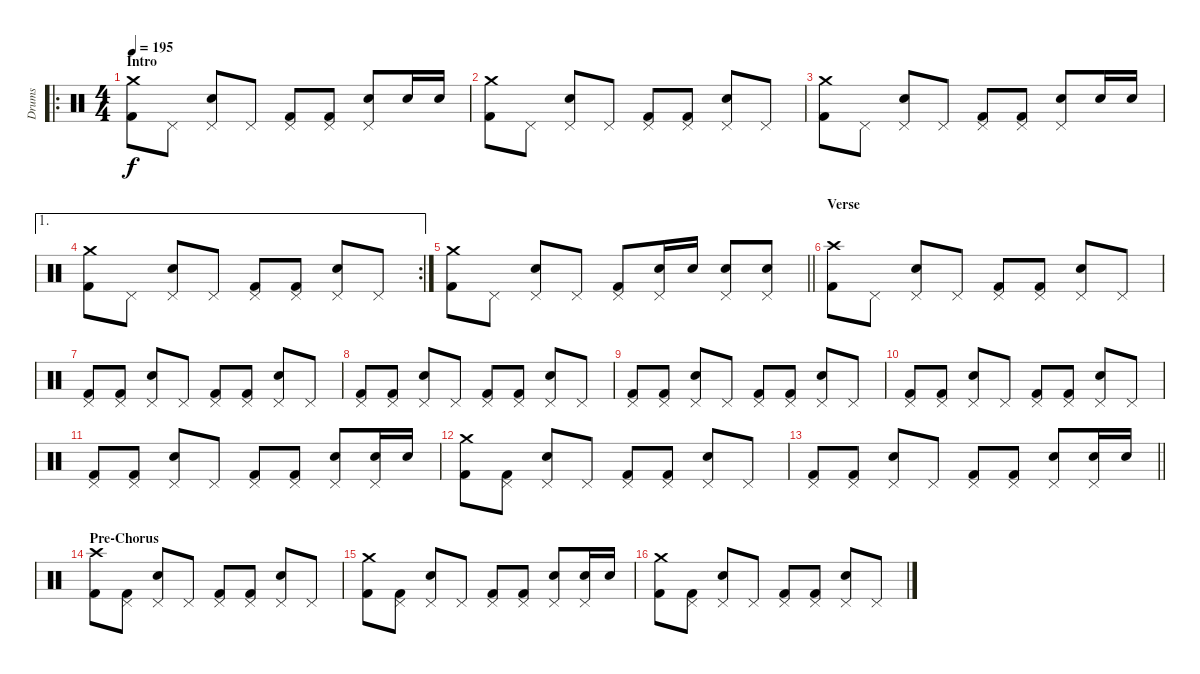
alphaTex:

\track ("Drums" "Drums") {instrument percussion}
\staff {score}
\articulation defaults
\ro
\ts (4 4)
\section ("" "Intro")
\tempo 195
\clef neutral
\ks c
("Crash medium (hit)" "Kick (hit) 2").8{dy f} "Pedal Hi-Hat (hit)".8 ("Pedal Hi-Hat (hit)" "Electric Snare (hit)").8 "Pedal Hi-Hat (hit)".8 ("Pedal Hi-Hat (hit)" "Kick (hit) 2").8 ("Pedal Hi-Hat (hit)" "Kick (hit) 2").8 ("Pedal Hi-Hat (hit)" "Electric Snare (hit)").8 "Electric Snare (hit)".16 "Electric Snare (hit)".16 |
("Crash medium (hit)" "Kick (hit) 2").8 "Pedal Hi-Hat (hit)".8 ("Pedal Hi-Hat (hit)" "Electric Snare (hit)").8 "Pedal Hi-Hat (hit)".8 ("Pedal Hi-Hat (hit)" "Kick (hit) 2").8 ("Pedal Hi-Hat (hit)" "Kick (hit) 2").8 ("Pedal Hi-Hat (hit)" "Electric Snare (hit)").8 "Pedal Hi-Hat (hit)".8 |
("Crash medium (hit)" "Kick (hit) 2").8 "Pedal Hi-Hat (hit)".8 ("Pedal Hi-Hat (hit)" "Electric Snare (hit)").8 "Pedal Hi-Hat (hit)".8 ("Pedal Hi-Hat (hit)" "Kick (hit) 2").8 ("Pedal Hi-Hat (hit)" "Kick (hit) 2").8 ("Pedal Hi-Hat (hit)" "Electric Snare (hit)").8 "Electric Snare (hit)".16 "Electric Snare (hit)".16 |
\ae 1
\rc 2
("Crash medium (hit)" "Kick (hit) 2").8 "Pedal Hi-Hat (hit)".8 ("Pedal Hi-Hat (hit)" "Electric Snare (hit)").8 "Pedal Hi-Hat (hit)".8 ("Pedal Hi-Hat (hit)" "Kick (hit) 2").8 ("Pedal Hi-Hat (hit)" "Kick (hit) 2").8 ("Pedal Hi-Hat (hit)" "Electric Snare (hit)").8 "Pedal Hi-Hat (hit)".8 |
\barLineRight lightlight
("Crash medium (hit)" "Kick (hit) 2").8 "Pedal Hi-Hat (hit)".8 ("Pedal Hi-Hat (hit)" "Electric Snare (hit)").8 "Pedal Hi-Hat (hit)".8 ("Pedal Hi-Hat (hit)" "Kick (hit) 2").8 ("Pedal Hi-Hat (hit)" "Electric Snare (hit)").16 "Electric Snare (hit)".16 ("Pedal Hi-Hat (hit)" "Electric Snare (hit)").8 ("Pedal Hi-Hat (hit)" "Electric Snare (hit)").8 |
\section ("" "Verse")
("Crash high (hit)" "Kick (hit) 2").8 "Pedal Hi-Hat (hit)".8 ("Pedal Hi-Hat (hit)" "Electric Snare (hit)").8 "Pedal Hi-Hat (hit)".8 ("Pedal Hi-Hat (hit)" "Kick (hit) 2").8 ("Pedal Hi-Hat (hit)" "Kick (hit) 2").8 ("Pedal Hi-Hat (hit)" "Electric Snare (hit)").8 "Pedal Hi-Hat (hit)".8 |
("Pedal Hi-Hat (hit)" "Kick (hit) 2").8 ("Pedal Hi-Hat (hit)" "Kick (hit) 2").8 ("Pedal Hi-Hat (hit)" "Electric Snare (hit)").8 "Pedal Hi-Hat (hit)".8 ("Pedal Hi-Hat (hit)" "Kick (hit) 2").8 ("Pedal Hi-Hat (hit)" "Kick (hit) 2").8 ("Pedal Hi-Hat (hit)" "Electric Snare (hit)").8 "Pedal Hi-Hat (hit)".8 |
("Pedal Hi-Hat (hit)" "Kick (hit) 2").8 ("Pedal Hi-Hat (hit)" "Kick (hit) 2").8 ("Pedal Hi-Hat (hit)" "Electric Snare (hit)").8 "Pedal Hi-Hat (hit)".8 ("Pedal Hi-Hat (hit)" "Kick (hit) 2").8 ("Pedal Hi-Hat (hit)" "Kick (hit) 2").8 ("Pedal Hi-Hat (hit)" "Electric Snare (hit)").8 "Pedal Hi-Hat (hit)".8 |
("Pedal Hi-Hat (hit)" "Kick (hit) 2").8 ("Pedal Hi-Hat (hit)" "Kick (hit) 2").8 ("Pedal Hi-Hat (hit)" "Electric Snare (hit)").8 "Pedal Hi-Hat (hit)".8 ("Pedal Hi-Hat (hit)" "Kick (hit) 2").8 ("Pedal Hi-Hat (hit)" "Kick (hit) 2").8 ("Pedal Hi-Hat (hit)" "Electric Snare (hit)").8 "Pedal Hi-Hat (hit)".8 |
("Pedal Hi-Hat (hit)" "Kick (hit) 2").8 ("Pedal Hi-Hat (hit)" "Kick (hit) 2").8 ("Pedal Hi-Hat (hit)" "Electric Snare (hit)").8 "Pedal Hi-Hat (hit)".8 ("Pedal Hi-Hat (hit)" "Kick (hit) 2").8 ("Pedal Hi-Hat (hit)" "Kick (hit) 2").8 ("Pedal Hi-Hat (hit)" "Electric Snare (hit)").8 "Pedal Hi-Hat (hit)".8 |
("Pedal Hi-Hat (hit)" "Kick (hit) 2").8 ("Pedal Hi-Hat (hit)" "Kick (hit) 2").8 ("Pedal Hi-Hat (hit)" "Electric Snare (hit)").8 "Pedal Hi-Hat (hit)".8 ("Pedal Hi-Hat (hit)" "Kick (hit) 2").8 ("Pedal Hi-Hat (hit)" "Kick (hit) 2").8 ("Pedal Hi-Hat (hit)" "Electric Snare (hit)").8 ("Pedal Hi-Hat (hit)" "Electric Snare (hit)").16 "Electric Snare (hit)".16 |
("Crash medium (hit)" "Kick (hit) 2").8 ("Pedal Hi-Hat (hit)" "Kick (hit) 2").8 ("Pedal Hi-Hat (hit)" "Electric Snare (hit)").8 "Pedal Hi-Hat (hit)".8 ("Pedal Hi-Hat (hit)" "Kick (hit) 2").8 ("Pedal Hi-Hat (hit)" "Kick (hit) 2").8 ("Pedal Hi-Hat (hit)" "Electric Snare (hit)").8 "Pedal Hi-Hat (hit)".8 |
\barLineRight lightlight
("Pedal Hi-Hat (hit)" "Kick (hit) 2").8 ("Pedal Hi-Hat (hit)" "Kick (hit) 2").8 ("Pedal Hi-Hat (hit)" "Electric Snare (hit)").8 "Pedal Hi-Hat (hit)".8 ("Pedal Hi-Hat (hit)" "Kick (hit) 2").8 ("Pedal Hi-Hat (hit)" "Kick (hit) 2").8 ("Pedal Hi-Hat (hit)" "Electric Snare (hit)").8 ("Pedal Hi-Hat (hit)" "Electric Snare (hit)").16 "Electric Snare (hit)".16 |
\section ("" "Pre-Chorus")
("Crash high (hit)" "Kick (hit) 2").8 ("Pedal Hi-Hat (hit)" "Kick (hit) 2").8 ("Pedal Hi-Hat (hit)" "Electric Snare (hit)").8 "Pedal Hi-Hat (hit)".8 ("Pedal Hi-Hat (hit)" "Kick (hit) 2").8 ("Pedal Hi-Hat (hit)" "Kick (hit) 2").8 ("Pedal Hi-Hat (hit)" "Electric Snare (hit)").8 "Pedal Hi-Hat (hit)".8 |
("Crash medium (hit)" "Kick (hit) 2").8 ("Pedal Hi-Hat (hit)" "Kick (hit) 2").8 ("Pedal Hi-Hat (hit)" "Electric Snare (hit)").8 "Pedal Hi-Hat (hit)".8 ("Pedal Hi-Hat (hit)" "Kick (hit) 2").8 ("Pedal Hi-Hat (hit)" "Kick (hit) 2").8 ("Pedal Hi-Hat (hit)" "Electric Snare (hit)").8 ("Pedal Hi-Hat (hit)" "Electric Snare (hit)").16 "Electric Snare (hit)".16 |
("Crash medium (hit)" "Kick (hit) 2").8 ("Pedal Hi-Hat (hit)" "Kick (hit) 2").8 ("Pedal Hi-Hat (hit)" "Electric Snare (hit)").8 "Pedal Hi-Hat (hit)".8 ("Pedal Hi-Hat (hit)" "Kick (hit) 2").8 ("Pedal Hi-Hat (hit)" "Kick (hit) 2").8 ("Pedal Hi-Hat (hit)" "Electric Snare (hit)").8 "Pedal Hi-Hat (hit)".8
